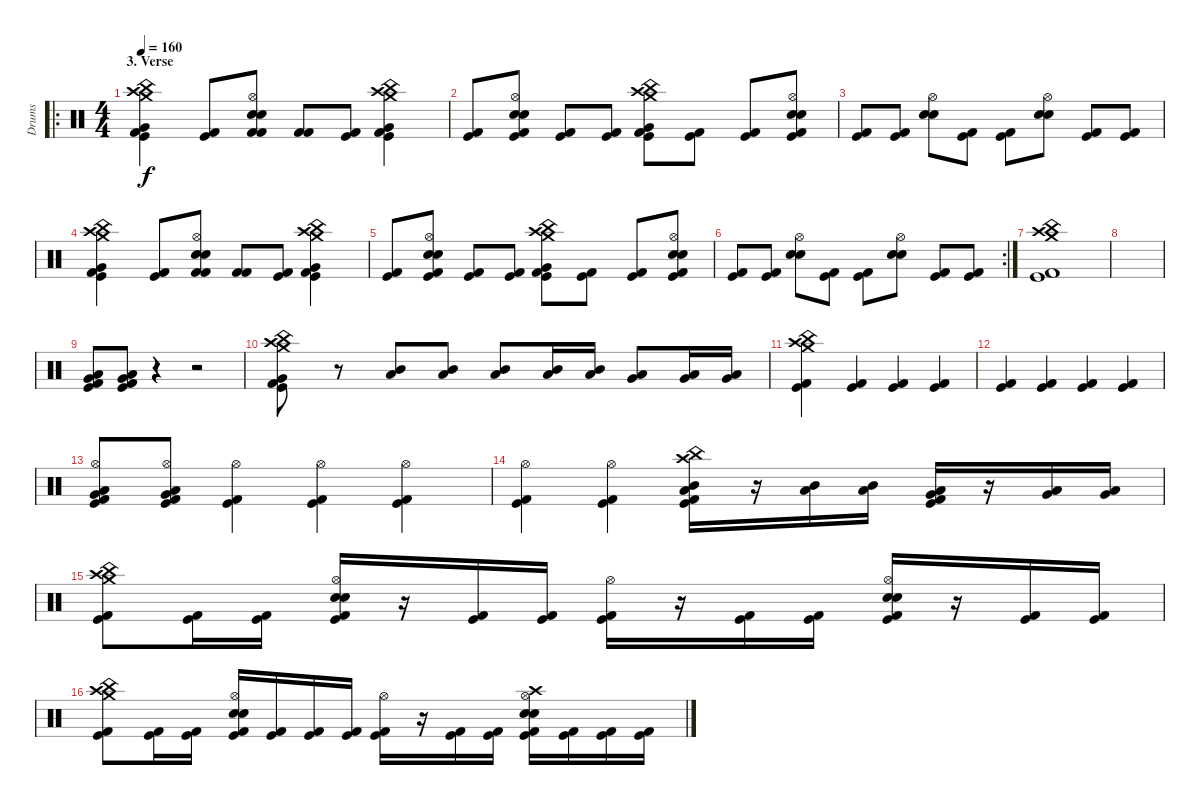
\track ("Drums" "Drums") {instrument percussion}
\staff {score}
\articulation defaults
\ro
\ts (4 4)
\section ("" "3. Verse")
\tempo 160
\clef neutral
\ks c
("Crash medium (hit)" "Crash high (hit)" "China (hit)" "Very Low Tom (hit)" "Kick (hit) 2" "Kick (hit)").4{dy f} ("Kick (hit) 2" "Kick (hit)").8 ("Hi-Hat (open)" "Electric Snare (hit)" "Snare (hit) 2" "Kick (hit) 2" "Kick (hit) 2").8 ("Kick (hit) 2" "Kick (hit) 2").8 ("Kick (hit)" "Kick (hit) 2").8 ("Crash medium (hit)" "Crash high (hit)" "China (hit)" "Very Low Tom (hit)" "Kick (hit) 2" "Kick (hit)").4 |
("Kick (hit) 2" "Kick (hit)").8 ("Hi-Hat (open)" "Electric Snare (hit)" "Snare (hit) 2" "Kick (hit)" "Kick (hit) 2").8 ("Kick (hit) 2" "Kick (hit)").8 ("Kick (hit) 2" "Kick (hit)").8 ("China (hit)" "Crash high (hit)" "Crash medium (hit)" "Very Low Tom (hit)" "Kick (hit) 2" "Kick (hit)").8 ("Kick (hit) 2" "Kick (hit)").8 ("Kick (hit) 2" "Kick (hit)").8 ("Hi-Hat (open)" "Electric Snare (hit)" "Snare (hit) 2" "Kick (hit) 2" "Kick (hit)").8 |
("Kick (hit)" "Kick (hit) 2").8 ("Kick (hit)" "Kick (hit) 2").8 ("Hi-Hat (open)" "Snare (hit) 2" "Electric Snare (hit)").8 ("Kick (hit)" "Kick (hit) 2").8 ("Kick (hit)" "Kick (hit) 2").8 ("Hi-Hat (open)" "Electric Snare (hit)" "Snare (hit) 2").8 ("Kick (hit)" "Kick (hit) 2").8 ("Kick (hit) 2" "Kick (hit)").8 |
("Crash medium (hit)" "Crash high (hit)" "China (hit)" "Very Low Tom (hit)" "Kick (hit) 2" "Kick (hit)").4 ("Kick (hit) 2" "Kick (hit)").8 ("Hi-Hat (open)" "Electric Snare (hit)" "Snare (hit) 2" "Kick (hit) 2" "Kick (hit) 2").8 ("Kick (hit) 2" "Kick (hit) 2").8 ("Kick (hit)" "Kick (hit) 2").8 ("Crash medium (hit)" "Crash high (hit)" "China (hit)" "Very Low Tom (hit)" "Kick (hit) 2" "Kick (hit)").4 |
("Kick (hit) 2" "Kick (hit)").8 ("Hi-Hat (open)" "Electric Snare (hit)" "Snare (hit) 2" "Kick (hit)" "Kick (hit) 2").8 ("Kick (hit) 2" "Kick (hit)").8 ("Kick (hit) 2" "Kick (hit)").8 ("China (hit)" "Crash high (hit)" "Crash medium (hit)" "Very Low Tom (hit)" "Kick (hit) 2" "Kick (hit)").8 ("Kick (hit) 2" "Kick (hit)").8 ("Kick (hit) 2" "Kick (hit)").8 ("Hi-Hat (open)" "Electric Snare (hit)" "Snare (hit) 2" "Kick (hit) 2" "Kick (hit)").8 |
\rc 2
("Kick (hit)" "Kick (hit) 2").8 ("Kick (hit)" "Kick (hit) 2").8 ("Hi-Hat (open)" "Snare (hit) 2" "Electric Snare (hit)").8 ("Kick (hit)" "Kick (hit) 2").8 ("Kick (hit)" "Kick (hit) 2").8 ("Hi-Hat (open)" "Electric Snare (hit)" "Snare (hit) 2").8 ("Kick (hit)" "Kick (hit) 2").8 ("Kick (hit) 2" "Kick (hit)").8 |
("Crash high (hit)" "Crash medium (hit)" "China (hit)" "Kick (hit) 2" "Kick (hit)").1 |
|
("Low Tom (hit)" "Very Low Tom (hit)" "Kick (hit) 2" "Kick (hit)").8 ("Low Tom (hit)" "Very Low Tom (hit)" "Kick (hit) 2" "Kick (hit)").8 r.4 r.2 |
("Crash medium (hit)" "Crash high (hit)" "China (hit)" "Very Low Tom (hit)" "Kick (hit) 2" "Kick (hit)").8 r.8 ("Low Tom (hit)" "Mid Tom (hit)").8 ("Mid Tom (hit)" "Low Tom (hit)").8 ("Mid Tom (hit)" "Low Tom (hit)").8 ("Low Tom (hit)" "Mid Tom (hit)").16 ("Low Tom (hit)" "Mid Tom (hit)").16 ("Low Tom (hit)" "Very Low Tom (hit)").8 ("Very Low Tom (hit)" "Low Tom (hit)").16 ("Very Low Tom (hit)" "Low Tom (hit)").16 |
("Crash medium (hit)" "Crash high (hit)" "China (hit)" "Kick (hit) 2" "Kick (hit)").4 ("Kick (hit) 2" "Kick (hit)").4 ("Kick (hit) 2" "Kick (hit)").4 ("Kick (hit) 2" "Kick (hit)").4 |
("Kick (hit) 2" "Kick (hit)").4 ("Kick (hit) 2" "Kick (hit)").4 ("Kick (hit) 2" "Kick (hit)").4 ("Kick (hit) 2" "Kick (hit)").4 |
("Hi-Hat (open)" "Low Tom (hit)" "Very Low Tom (hit)" "Kick (hit) 2" "Kick (hit)").8 ("Hi-Hat (open)" "Low Tom (hit)" "Very Low Tom (hit)" "Kick (hit)" "Kick (hit) 2").8 ("Hi-Hat (open)" "Kick (hit) 2" "Kick (hit)").4 ("Hi-Hat (open)" "Kick (hit) 2" "Kick (hit)").4 ("Hi-Hat (open)" "Kick (hit) 2" "Kick (hit)").4 |
("Hi-Hat (open)" "Kick (hit) 2" "Kick (hit)").4 ("Hi-Hat (open)" "Kick (hit) 2" "Kick (hit)").4 ("Crash high (hit)" "China (hit)" "Mid Tom (hit)" "Low Tom (hit)" "Kick (hit) 2" "Kick (hit)").16 r.16 ("Mid Tom (hit)" "Low Tom (hit)").16 ("Mid Tom (hit)" "Low Tom (hit)").16 ("Low Tom (hit)" "Very Low Tom (hit)" "Kick (hit)" "Kick (hit) 2").16 r.16 ("Low Tom (hit)" "Very Low Tom (hit)").16 ("Low Tom (hit)" "Very Low Tom (hit)").16 |
("Crash medium (hit)" "Crash high (hit)" "China (hit)" "Kick (hit)" "Kick (hit) 2").8 ("Kick (hit) 2" "Kick (hit)").16 ("Kick (hit) 2" "Kick (hit)").16 ("Hi-Hat (open)" "Electric Snare (hit)" "Snare (hit) 2" "Kick (hit) 2" "Kick (hit)").16 r.16 ("Kick (hit) 2" "Kick (hit)").16 ("Kick (hit) 2" "Kick (hit)").16 ("Hi-Hat (open)" "Kick (hit) 2" "Kick (hit)").16 r.16 ("Kick (hit) 2" "Kick (hit)").16 ("Kick (hit) 2" "Kick (hit)").16 ("Hi-Hat (open)" "Electric Snare (hit)" "Snare (hit) 2" "Kick (hit) 2" "Kick (hit)").16 r.16 ("Kick (hit) 2" "Kick (hit)").16 ("Kick (hit) 2" "Kick (hit)").16 |
("Crash medium (hit)" "Crash high (hit)" "China (hit)" "Kick (hit) 2" "Kick (hit)").8 ("Kick (hit) 2" "Kick (hit)").16 ("Kick (hit) 2" "Kick (hit)").16 ("Hi-Hat (open)" "Snare (hit) 2" "Electric Snare (hit)" "Kick (hit) 2" "Kick (hit)").16 ("Kick (hit) 2" "Kick (hit)").16 ("Kick (hit) 2" "Kick (hit)").16 ("Kick (hit) 2" "Kick (hit)").16 ("Hi-Hat (open)" "Kick (hit) 2" "Kick (hit)").16 r.16 ("Kick (hit) 2" "Kick (hit)").16 ("Kick (hit) 2" "Kick (hit)").16 ("Crash high (hit)" "Hi-Hat (open)" "Snare (hit) 2" "Electric Snare (hit)" "Kick (hit) 2" "Kick (hit)").16 ("Kick (hit) 2" "Kick (hit)").16 ("Kick (hit) 2" "Kick (hit)").16 ("Kick (hit) 2" "Kick (hit)").16
